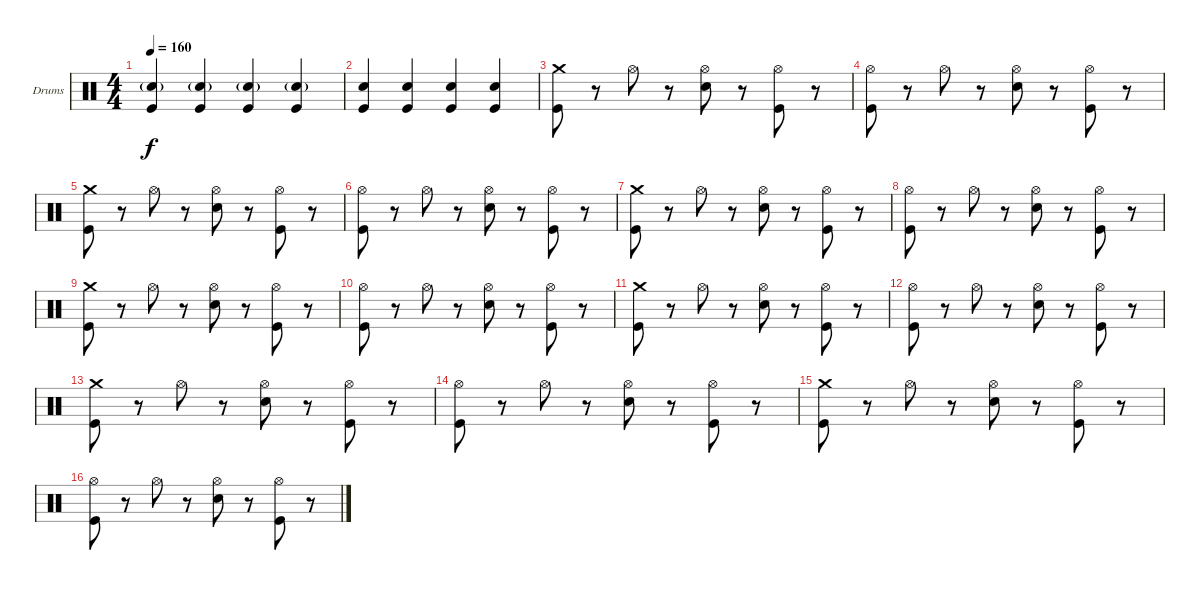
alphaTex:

\bracketExtendMode groupsimilarinstruments
\firstSystemTrackNameOrientation horizontal
\otherSystemsTrackNameOrientation horizontal
\track ("Drumkit" "Drums") {instrument percussion}
\staff {score}
\articulation defaults
\ts (4 4)
\tempo 160
\clef neutral
\ks c
("Snare (hit) 2"{g} "Kick (hit)").4{dy f} ("Snare (hit) 2"{g} "Kick (hit)").4 ("Snare (hit) 2"{g} "Kick (hit)").4 ("Snare (hit) 2"{g} "Kick (hit)").4 |
("Snare (hit) 2" "Kick (hit)").4 ("Snare (hit) 2" "Kick (hit)").4 ("Snare (hit) 2" "Kick (hit)").4 ("Snare (hit) 2" "Kick (hit)").4 |
("Crash medium (hit)" "Kick (hit)").8 r.8 "Hi-Hat (open)".8 r.8 ("Hi-Hat (open)" "Snare (hit) 2").8 r.8 ("Hi-Hat (open)" "Kick (hit)").8 r.8 |
("Hi-Hat (open)" "Kick (hit)").8 r.8 "Hi-Hat (open)".8 r.8 ("Hi-Hat (open)" "Snare (hit) 2").8 r.8 ("Hi-Hat (open)" "Kick (hit)").8 r.8 |
("Crash medium (hit)" "Kick (hit)").8 r.8 "Hi-Hat (open)".8 r.8 ("Hi-Hat (open)" "Snare (hit) 2").8 r.8 ("Hi-Hat (open)" "Kick (hit)").8 r.8 |
("Hi-Hat (open)" "Kick (hit)").8 r.8 "Hi-Hat (open)".8 r.8 ("Hi-Hat (open)" "Snare (hit) 2").8 r.8 ("Hi-Hat (open)" "Kick (hit)").8 r.8 |
("Crash medium (hit)" "Kick (hit)").8 r.8 "Hi-Hat (open)".8 r.8 ("Hi-Hat (open)" "Snare (hit) 2").8 r.8 ("Hi-Hat (open)" "Kick (hit)").8 r.8 |
("Hi-Hat (open)" "Kick (hit)").8 r.8 "Hi-Hat (open)".8 r.8 ("Hi-Hat (open)" "Snare (hit) 2").8 r.8 ("Hi-Hat (open)" "Kick (hit)").8 r.8 |
("Crash medium (hit)" "Kick (hit)").8 r.8 "Hi-Hat (open)".8 r.8 ("Hi-Hat (open)" "Snare (hit) 2").8 r.8 ("Hi-Hat (open)" "Kick (hit)").8 r.8 |
("Hi-Hat (open)" "Kick (hit)").8 r.8 "Hi-Hat (open)".8 r.8 ("Hi-Hat (open)" "Snare (hit) 2").8 r.8 ("Hi-Hat (open)" "Kick (hit)").8 r.8 |
("Crash medium (hit)" "Kick (hit)").8 r.8 "Hi-Hat (open)".8 r.8 ("Hi-Hat (open)" "Snare (hit) 2").8 r.8 ("Hi-Hat (open)" "Kick (hit)").8 r.8 |
("Hi-Hat (open)" "Kick (hit)").8 r.8 "Hi-Hat (open)".8 r.8 ("Hi-Hat (open)" "Snare (hit) 2").8 r.8 ("Hi-Hat (open)" "Kick (hit)").8 r.8 |
("Crash medium (hit)" "Kick (hit)").8 r.8 "Hi-Hat (open)".8 r.8 ("Hi-Hat (open)" "Snare (hit) 2").8 r.8 ("Hi-Hat (open)" "Kick (hit)").8 r.8 |
("Hi-Hat (open)" "Kick (hit)").8 r.8 "Hi-Hat (open)".8 r.8 ("Hi-Hat (open)" "Snare (hit) 2").8 r.8 ("Hi-Hat (open)" "Kick (hit)").8 r.8 |
("Crash medium (hit)" "Kick (hit)").8 r.8 "Hi-Hat (open)".8 r.8 ("Hi-Hat (open)" "Snare (hit) 2").8 r.8 ("Hi-Hat (open)" "Kick (hit)").8 r.8 |
("Hi-Hat (open)" "Kick (hit)").8 r.8 "Hi-Hat (open)".8 r.8 ("Hi-Hat (open)" "Snare (hit) 2").8 r.8 ("Hi-Hat (open)" "Kick (hit)").8 r.8
